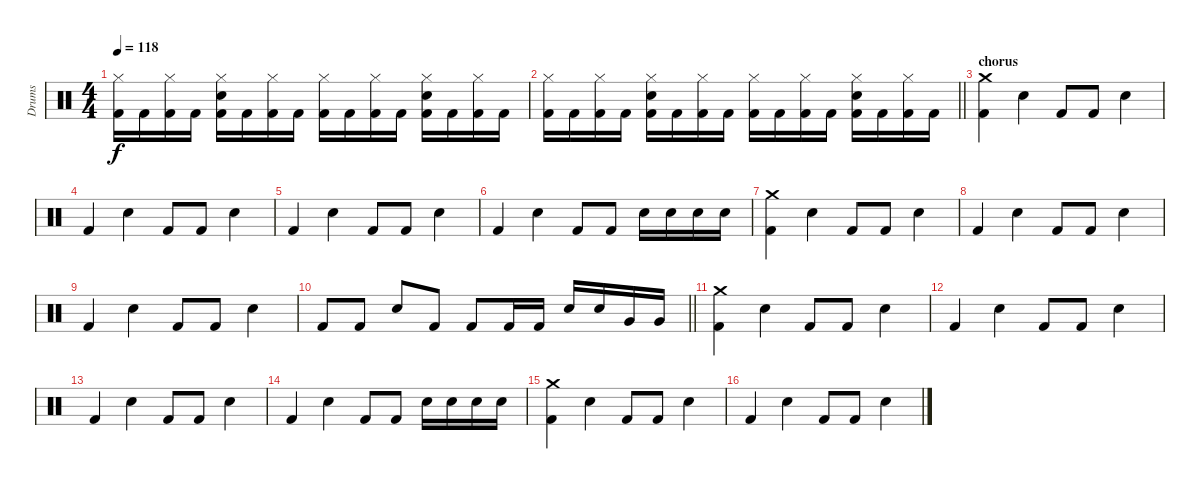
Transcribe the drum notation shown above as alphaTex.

\track ("Drums" "Drums") {instrument percussion}
\staff {score}
\articulation defaults
\ts (4 4)
\tempo 118
\clef neutral
\ks c
("Hi-Hat (closed)" "Kick (hit) 2").16{dy f} "Kick (hit) 2".16 ("Hi-Hat (closed)" "Kick (hit) 2").16 "Kick (hit) 2".16 ("Snare (hit) 2" "Hi-Hat (closed)" "Kick (hit) 2").16 "Kick (hit) 2".16 ("Hi-Hat (closed)" "Kick (hit) 2").16 "Kick (hit) 2".16 ("Hi-Hat (closed)" "Kick (hit) 2").16 "Kick (hit) 2".16 ("Hi-Hat (closed)" "Kick (hit) 2").16 "Kick (hit) 2".16 ("Snare (hit) 2" "Hi-Hat (closed)" "Kick (hit) 2").16 "Kick (hit) 2".16 ("Hi-Hat (closed)" "Kick (hit) 2").16 "Kick (hit) 2".16 |
\barLineRight lightlight
("Hi-Hat (closed)" "Kick (hit) 2").16 "Kick (hit) 2".16 ("Hi-Hat (closed)" "Kick (hit) 2").16 "Kick (hit) 2".16 ("Snare (hit) 2" "Hi-Hat (closed)" "Kick (hit) 2").16 "Kick (hit) 2".16 ("Hi-Hat (closed)" "Kick (hit) 2").16 "Kick (hit) 2".16 ("Hi-Hat (closed)" "Kick (hit) 2").16 "Kick (hit) 2".16 ("Hi-Hat (closed)" "Kick (hit) 2").16 "Kick (hit) 2".16 ("Snare (hit) 2" "Hi-Hat (closed)" "Kick (hit) 2").16 "Kick (hit) 2".16 ("Hi-Hat (closed)" "Kick (hit) 2").16 "Kick (hit) 2".16 |
\section ("" "chorus")
("Crash medium (hit)" "Kick (hit) 2").4 "Snare (hit) 2".4 "Kick (hit) 2".8 "Kick (hit) 2".8 "Snare (hit) 2".4 |
"Kick (hit) 2".4 "Snare (hit) 2".4 "Kick (hit) 2".8 "Kick (hit) 2".8 "Snare (hit) 2".4 |
"Kick (hit) 2".4 "Snare (hit) 2".4 "Kick (hit) 2".8 "Kick (hit) 2".8 "Snare (hit) 2".4 |
"Kick (hit) 2".4 "Snare (hit) 2".4 "Kick (hit) 2".8 "Kick (hit) 2".8 "Snare (hit) 2".16 "Snare (hit) 2".16 "Snare (hit) 2".16 "Snare (hit) 2".16 |
("Crash medium (hit)" "Kick (hit) 2").4 "Snare (hit) 2".4 "Kick (hit) 2".8 "Kick (hit) 2".8 "Snare (hit) 2".4 |
"Kick (hit) 2".4 "Snare (hit) 2".4 "Kick (hit) 2".8 "Kick (hit) 2".8 "Snare (hit) 2".4 |
"Kick (hit) 2".4 "Snare (hit) 2".4 "Kick (hit) 2".8 "Kick (hit) 2".8 "Snare (hit) 2".4 |
\barLineRight lightlight "Kick (hit) 2".8 "Kick (hit) 2".8 "Snare (hit) 2".8 "Kick (hit) 2".8 "Kick (hit) 2".8 "Kick (hit) 2".16 "Kick (hit) 2".16 "Snare (hit) 2".16 "Snare (hit) 2".16 "Very Low Tom (hit)".16 "Very Low Tom (hit)".16
|
("Crash medium (hit)" "Kick (hit) 2").4 "Snare (hit) 2".4 "Kick (hit) 2".8 "Kick (hit) 2".8 "Snare (hit) 2".4 |
"Kick (hit) 2".4 "Snare (hit) 2".4 "Kick (hit) 2".8 "Kick (hit) 2".8 "Snare (hit) 2".4 |
"Kick (hit) 2".4 "Snare (hit) 2".4 "Kick (hit) 2".8 "Kick (hit) 2".8 "Snare (hit) 2".4 |
"Kick (hit) 2".4 "Snare (hit) 2".4 "Kick (hit) 2".8 "Kick (hit) 2".8 "Snare (hit) 2".16 "Snare (hit) 2".16 "Snare (hit) 2".16 "Snare (hit) 2".16 |
("Crash medium (hit)" "Kick (hit) 2").4 "Snare (hit) 2".4 "Kick (hit) 2".8 "Kick (hit) 2".8 "Snare (hit) 2".4 |
"Kick (hit) 2".4 "Snare (hit) 2".4 "Kick (hit) 2".8 "Kick (hit) 2".8 "Snare (hit) 2".4
